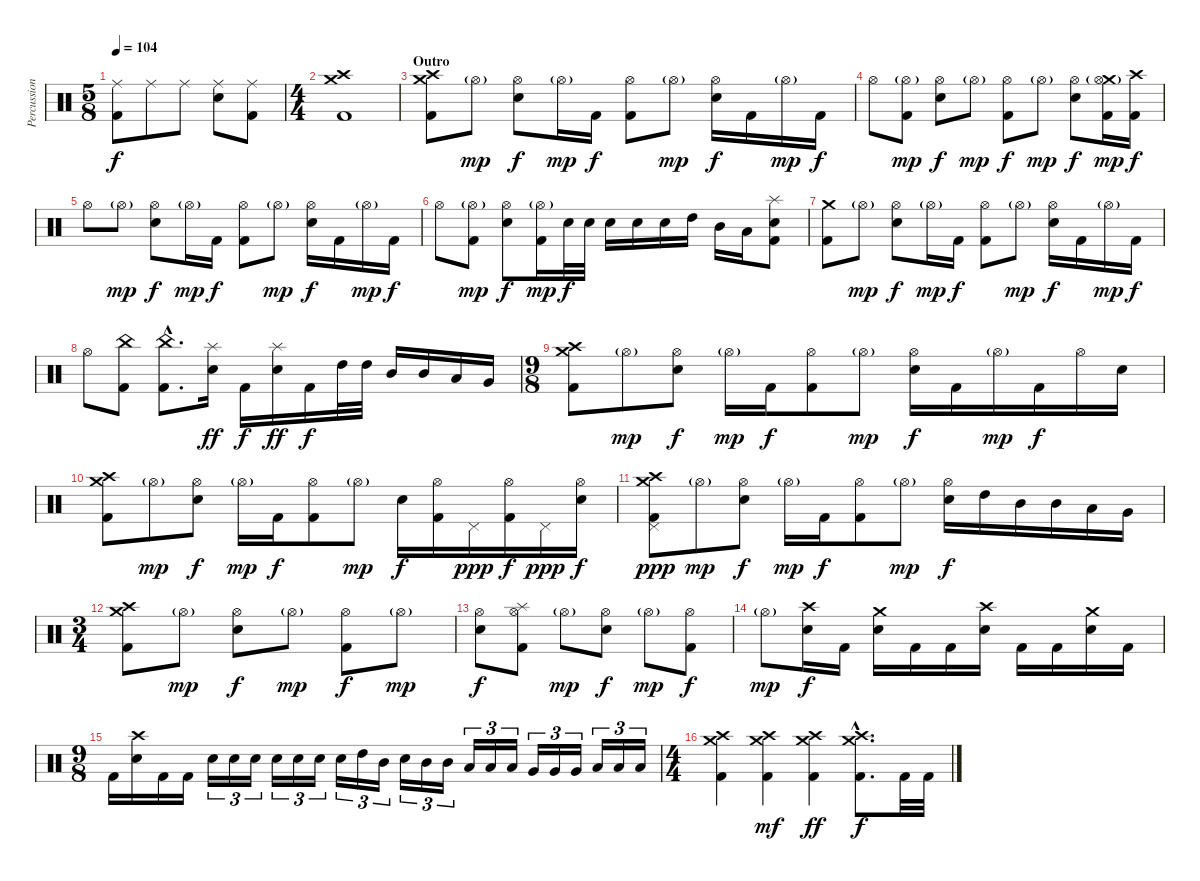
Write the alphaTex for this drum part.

\track ("Percussions" "Percussion") {instrument percussion}
\staff {score}
\articulation defaults
\ts (5 8)
\tempo 104
\clef neutral
\ks c
("Ride (middle)" "Kick (hit) 2").8{dy f} "Ride (middle)".8 "Ride (middle)".8 ("Ride (middle)" "Electric Snare (hit)").8 ("Ride (middle)" "Kick (hit) 2").8 |
\ts (4 4)
("Crash medium (hit)" "Crash high (hit)" "Kick (hit) 2").1 |
\section ("" "Outro")
("Crash high (hit)" "Crash medium (hit)" "Kick (hit) 2").8 "Hi-Hat (open)"{g}.8{dy mp} ("Hi-Hat (open)" "Electric Snare (hit)").8{dy f} "Hi-Hat (open)"{g}.16{dy mp} "Kick (hit) 2".16{dy f} ("Hi-Hat (open)" "Kick (hit) 2").8 "Hi-Hat (open)"{g}.8{dy mp} ("Hi-Hat (open)" "Electric Snare (hit)").16{dy f} "Kick (hit) 2".16 "Hi-Hat (open)"{g}.16{dy mp} "Kick (hit) 2".16{dy f} |
"Hi-Hat (open)".8 ("Hi-Hat (open)"{g} "Kick (hit) 2").8{dy mp} ("Hi-Hat (open)" "Electric Snare (hit)").8{dy f} "Hi-Hat (open)"{g}.8{dy mp} ("Hi-Hat (open)" "Kick (hit) 2").8{dy f} "Hi-Hat (open)"{g}.8{dy mp} ("Hi-Hat (open)" "Electric Snare (hit)").8{dy f} ("Crash medium (hit)" "Hi-Hat (open)"{g} "Kick (hit) 2").16{dy mp} ("Crash high (hit)" "Kick (hit) 2").16{dy f} |
"Hi-Hat (open)".8 "Hi-Hat (open)"{g}.8{dy mp} ("Hi-Hat (open)" "Electric Snare (hit)").8{dy f} "Hi-Hat (open)"{g}.16{dy mp} "Kick (hit) 2".16{dy f} ("Hi-Hat (open)" "Kick (hit) 2").8 "Hi-Hat (open)"{g}.8{dy mp} ("Hi-Hat (open)" "Electric Snare (hit)").16{dy f} "Kick (hit) 2".16 "Hi-Hat (open)"{g}.16{dy mp} "Kick (hit) 2".16{dy f} |
"Hi-Hat (open)".8 ("Hi-Hat (open)"{g} "Kick (hit) 2").8{dy mp} ("Hi-Hat (open)" "Electric Snare (hit)").8{dy f} ("Hi-Hat (open)"{g} "Kick (hit) 2").16{dy mp} "Electric Snare (hit)".32{dy f} "Electric Snare (hit)".32 "Electric Snare (hit)".16 "Electric Snare (hit)".16 "Electric Snare (hit)".16 "High Tom (hit)".16 "Mid Tom (hit)".16 "Low Tom (hit)".16 ("Splash (hit)" "Electric Snare (hit)" "Kick (hit) 2").8 |
("Crash medium (hit)" "Kick (hit) 2").8 "Hi-Hat (open)"{g}.8{dy mp} ("Hi-Hat (open)" "Electric Snare (hit)").8{dy f} "Hi-Hat (open)"{g}.16{dy mp} "Kick (hit) 2".16{dy f} ("Hi-Hat (open)" "Kick (hit) 2").8 "Hi-Hat (open)"{g}.8{dy mp} ("Hi-Hat (open)" "Electric Snare (hit)").16{dy f} "Kick (hit) 2".16 "Hi-Hat (open)"{g}.16{dy mp} "Kick (hit) 2".16{dy f} |
"Hi-Hat (open)".8 ("China (hit)" "Kick (hit) 2").8 ("China (hit)"{hac} "Kick (hit) 2"{hac}).8{d} ("Splash (hit)" "Electric Snare (hit)").16{dy ff} "Kick (hit) 2".16{dy f} ("Splash (hit)" "Electric Snare (hit)").16{dy ff} "Kick (hit) 2".16{dy f} "High Tom (hit)".32 "High Tom (hit)".32 "Mid Tom (hit)".16 "Mid Tom (hit)".16 "Low Tom (hit)".16 "Very Low Tom (hit)".16 |
\ts (9 8)
("Crash high (hit)" "Crash medium (hit)" "Kick (hit) 2").8 "Hi-Hat (open)"{g}.8{dy mp} ("Hi-Hat (open)" "Electric Snare (hit)").8{dy f} "Hi-Hat (open)"{g}.16{dy mp} "Kick (hit) 2".16{dy f} ("Hi-Hat (open)" "Kick (hit) 2").8 "Hi-Hat (open)"{g}.8{dy mp} ("Hi-Hat (open)" "Electric Snare (hit)").16{dy f} "Kick (hit) 2".16 "Hi-Hat (open)"{g}.16{dy mp} "Kick (hit) 2".16{dy f} "Hi-Hat (open)".16 "Electric Snare (hit)".16 |
("Crash high (hit)" "Crash medium (hit)" "Kick (hit) 2").8 "Hi-Hat (open)"{g}.8{dy mp} ("Hi-Hat (open)" "Electric Snare (hit)").8{dy f} "Hi-Hat (open)"{g}.16{dy mp} "Kick (hit) 2".16{dy f} ("Hi-Hat (open)" "Kick (hit) 2").8 "Hi-Hat (open)"{g}.8{dy mp} "Electric Snare (hit)".16{dy f} ("Hi-Hat (open)" "Kick (hit) 2").16 "Pedal Hi-Hat (hit)".16{dy ppp} ("Hi-Hat (open)" "Kick (hit) 2").16{dy f} "Pedal Hi-Hat (hit)".16{dy ppp} ("Hi-Hat (open)" "Electric Snare (hit)").16{dy f} |
("Crash high (hit)" "Pedal Hi-Hat (hit)" "Crash medium (hit)" "Kick (hit) 2").8{dy ppp} "Hi-Hat (open)"{g}.8{dy mp} ("Hi-Hat (open)" "Electric Snare (hit)").8{dy f} "Hi-Hat (open)"{g}.16{dy mp} "Kick (hit) 2".16{dy f} ("Hi-Hat (open)" "Kick (hit) 2").8 "Hi-Hat (open)"{g}.8{dy mp} ("Hi-Hat (open)" "Electric Snare (hit)").16{dy f} "High Tom (hit)".16 "Mid Tom (hit)".16 "Mid Tom (hit)".16 "Low Tom (hit)".16 "Very Low Tom (hit)".16 |
\ts (3 4)
("Crash high (hit)" "Crash medium (hit)" "Kick (hit) 2").8 "Hi-Hat (open)"{g}.8{dy mp} ("Hi-Hat (open)" "Electric Snare (hit)").8{dy f} "Hi-Hat (open)"{g}.8{dy mp} ("Hi-Hat (open)" "Kick (hit) 2").8{dy f} "Hi-Hat (open)"{g}.8{dy mp} |
("Hi-Hat (open)" "Electric Snare (hit)").8{dy f} ("Splash (hit)" "Hi-Hat (open)" "Kick (hit) 2").8 "Hi-Hat (open)"{g}.8{dy mp} ("Hi-Hat (open)" "Electric Snare (hit)").8{dy f} "Hi-Hat (open)"{g}.8{dy mp} ("Hi-Hat (open)" "Kick (hit) 2").8{dy f} |
"Hi-Hat (open)"{g}.8{dy mp} ("Crash high (hit)" "Electric Snare (hit)").16{dy f} "Kick (hit) 2".16 ("Crash medium (hit)" "Electric Snare (hit)").16 "Kick (hit) 2".16 "Kick (hit) 2".16 ("Crash high (hit)" "Electric Snare (hit)").16 "Kick (hit) 2".16 "Kick (hit) 2".16 ("Crash medium (hit)" "Electric Snare (hit)").16 "Kick (hit) 2".16 |
\ts (9 8)
"Kick (hit) 2".16 ("Crash high (hit)" "Electric Snare (hit)").16 "Kick (hit) 2".16 "Kick (hit) 2".16 "Electric Snare (hit)".16{tu (3 2)} "Electric Snare (hit)".16{tu (3 2)} "Electric Snare (hit)".16{tu (3 2)} "Electric Snare (hit)".16{tu (3 2)} "Electric Snare (hit)".16{tu (3 2)} "Electric Snare (hit)".16{tu (3 2)} "Electric Snare (hit)".16{tu (3 2)} "High Tom (hit)".16{tu (3 2)} "Mid Tom (hit)".16{tu (3 2)} "Electric Snare (hit)".16{tu (3 2)} "Mid Tom (hit)".16{tu (3 2)} "Mid Tom (hit)".16{tu (3 2)} "Low Tom (hit)".16{tu (3 2)} "Low Tom (hit)".16{tu (3 2)} "Low Tom (hit)".16{tu (3 2)} "Very Low Tom (hit)".16{tu (3 2)} "Very Low Tom (hit)".16{tu (3 2)} "Very Low Tom (hit)".16{tu (3 2)} "Low Floor Tom (hit)".16{tu (3 2)} "Low Floor Tom (hit)".16{tu (3 2)} "Low Floor Tom (hit)".16{tu (3 2)} |
\ts (4 4)
("Crash medium (hit)" "Crash high (hit)" "Kick (hit) 2").4 ("Crash medium (hit)" "Crash high (hit)" "Kick (hit) 2").4{dy mf} ("Crash medium (hit)" "Crash high (hit)" "Kick (hit) 2").4{dy ff} ("Crash medium (hit)"{hac} "Crash high (hit)"{hac} "Kick (hit) 2"{hac}).8{d dy f} "Kick (hit) 2".32 "Kick (hit) 2".32
